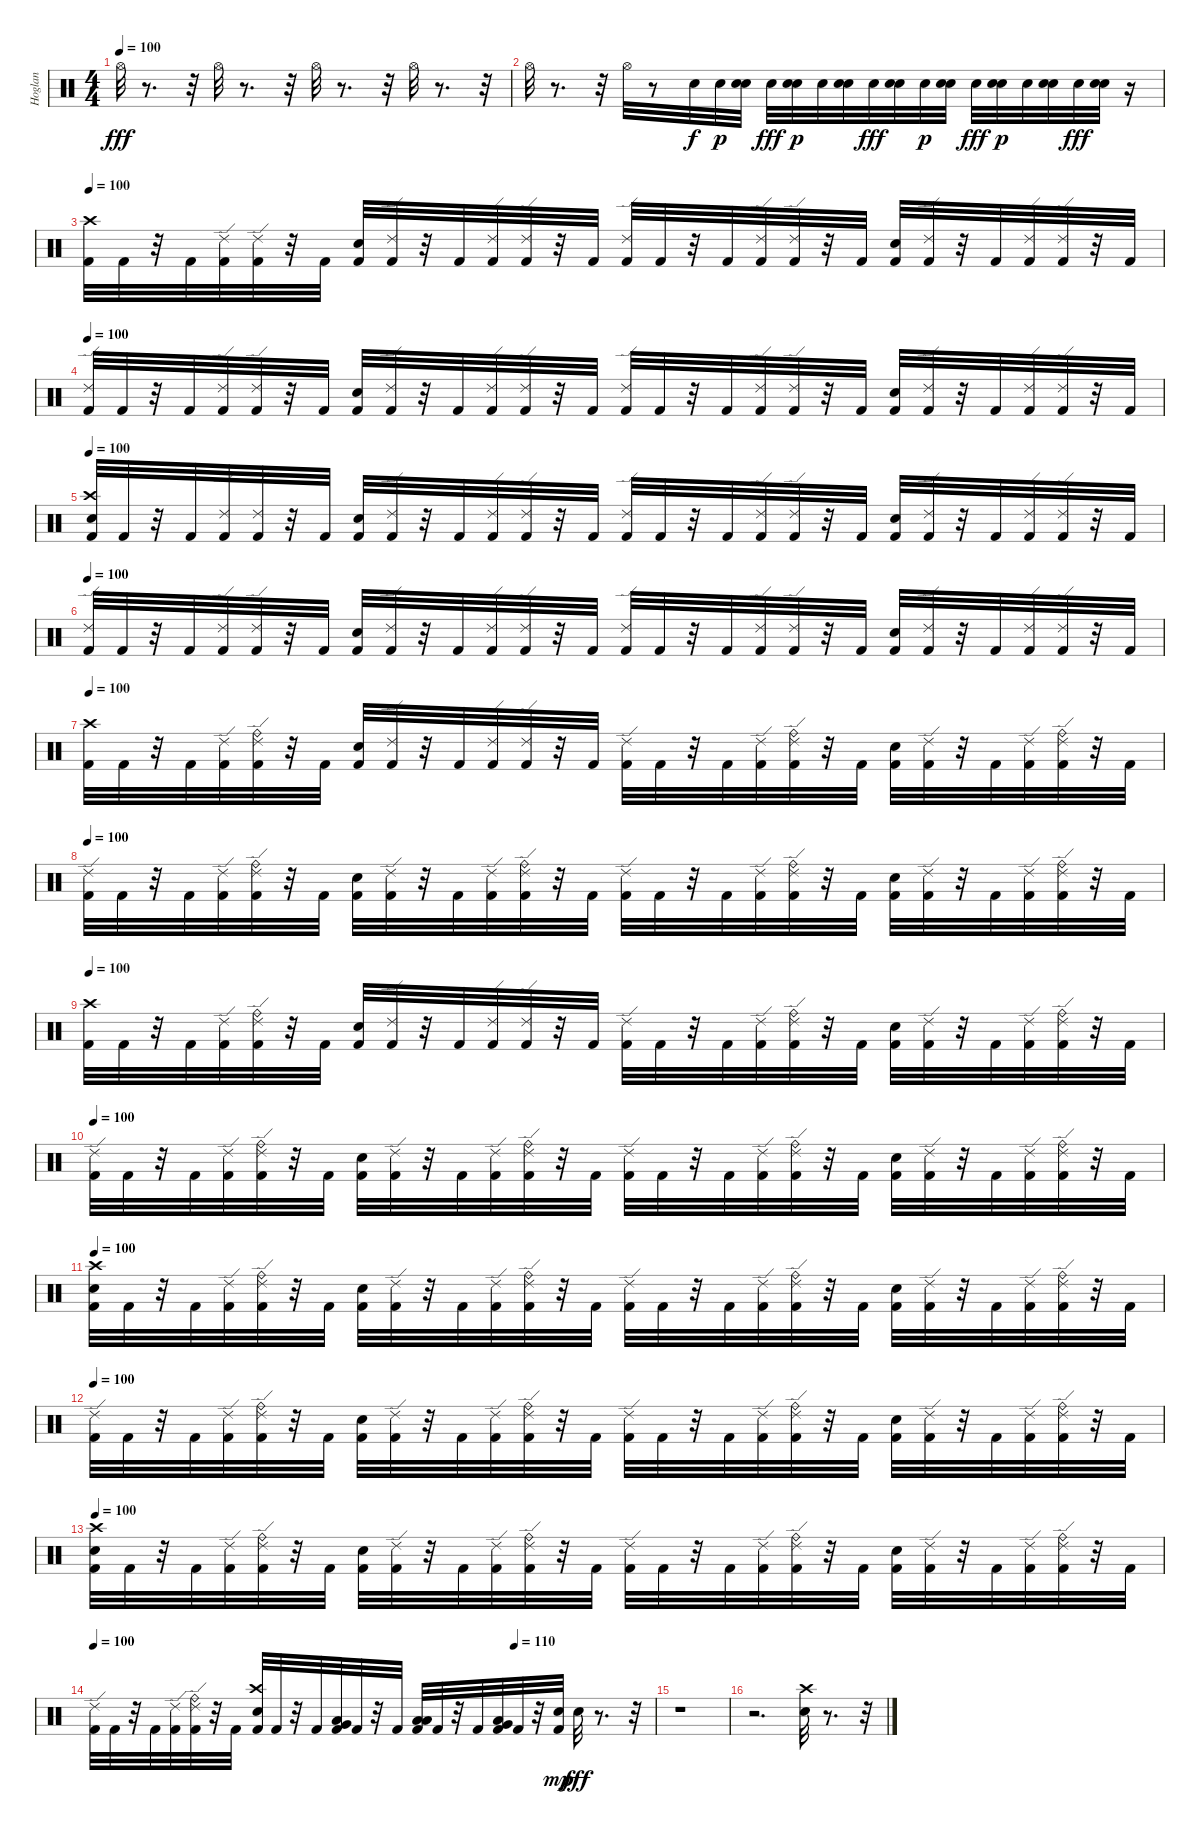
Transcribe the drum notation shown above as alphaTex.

\track ("Hoglan" "Hoglan") {instrument percussion}
\staff {score}
\articulation defaults
\ts (4 4)
\tempo 100
\clef neutral
\ks c "Hi-Hat (open)".32{dy fff}
r.8{d} r.32 "Hi-Hat (open)".32 r.8{d} r.32 "Hi-Hat (open)".32 r.8{d} r.32 "Hi-Hat (open)".32 r.8{d} r.32 |
"Hi-Hat (open)".32 r.8{d} r.32 "Hi-Hat (open)".32 r.8 "Electric Snare (hit)".32{dy f} "Electric Snare (hit)".32{dy p} ("Electric Snare (hit)" "Electric Snare (hit)").32 "Electric Snare (hit)".32{dy fff} ("Electric Snare (hit)" "Electric Snare (hit)").32{dy p} "Electric Snare (hit)".32 ("Electric Snare (hit)" "Electric Snare (hit)").32 "Electric Snare (hit)".32{dy fff} ("Electric Snare (hit)" "Electric Snare (hit)").32 "Electric Snare (hit)".32{dy p} ("Electric Snare (hit)" "Electric Snare (hit)").32 "Electric Snare (hit)".32{dy fff} ("Electric Snare (hit)" "Electric Snare (hit)").32{dy p} "Electric Snare (hit)".32 ("Electric Snare (hit)" "Electric Snare (hit)").32 "Electric Snare (hit)".32{dy fff} ("Electric Snare (hit)" "Electric Snare (hit)").32 r.16 |
\tempo 100
("Crash high (hit)" "Kick (hit) 2").32 "Kick (hit) 2".32 r.32 "Kick (hit) 2".32 ("Ride (edge) 2" "Kick (hit) 2").32 ("Ride (edge) 2" "Kick (hit) 2").32 r.32 "Kick (hit) 2".32 ("Electric Snare (hit)" "Kick (hit) 2").32 ("Ride (edge) 2" "Kick (hit) 2").32 r.32 "Kick (hit) 2".32 ("Ride (edge) 2" "Kick (hit) 2").32 ("Ride (edge) 2" "Kick (hit) 2").32 r.32 "Kick (hit) 2".32 ("Ride (edge) 2" "Kick (hit) 2").32 "Kick (hit) 2".32 r.32 "Kick (hit) 2".32 ("Ride (edge) 2" "Kick (hit) 2").32 ("Ride (edge) 2" "Kick (hit) 2").32 r.32 "Kick (hit) 2".32 ("Electric Snare (hit)" "Kick (hit) 2").32 ("Ride (edge) 2" "Kick (hit) 2").32 r.32 "Kick (hit) 2".32 ("Ride (edge) 2" "Kick (hit) 2").32 ("Ride (edge) 2" "Kick (hit) 2").32 r.32 "Kick (hit) 2".32 |
\tempo 100
("Ride (edge) 2" "Kick (hit) 2").32 "Kick (hit) 2".32 r.32 "Kick (hit) 2".32 ("Ride (edge) 2" "Kick (hit) 2").32 ("Ride (edge) 2" "Kick (hit) 2").32 r.32 "Kick (hit) 2".32 ("Electric Snare (hit)" "Kick (hit) 2").32 ("Ride (edge) 2" "Kick (hit) 2").32 r.32 "Kick (hit) 2".32 ("Ride (edge) 2" "Kick (hit) 2").32 ("Ride (edge) 2" "Kick (hit) 2").32 r.32 "Kick (hit) 2".32 ("Ride (edge) 2" "Kick (hit) 2").32 "Kick (hit) 2".32 r.32 "Kick (hit) 2".32 ("Ride (edge) 2" "Kick (hit) 2").32 ("Ride (edge) 2" "Kick (hit) 2").32 r.32 "Kick (hit) 2".32 ("Electric Snare (hit)" "Kick (hit) 2").32 ("Ride (edge) 2" "Kick (hit) 2").32 r.32 "Kick (hit) 2".32 ("Ride (edge) 2" "Kick (hit) 2").32 ("Ride (edge) 2" "Kick (hit) 2").32 r.32 "Kick (hit) 2".32 |
\tempo 100
("Crash high (hit)" "Electric Snare (hit)" "Kick (hit) 2").32 "Kick (hit) 2".32 r.32 "Kick (hit) 2".32 ("Ride (edge) 2" "Kick (hit) 2").32 ("Ride (edge) 2" "Kick (hit) 2").32 r.32 "Kick (hit) 2".32 ("Electric Snare (hit)" "Kick (hit) 2").32 ("Ride (edge) 2" "Kick (hit) 2").32 r.32 "Kick (hit) 2".32 ("Ride (edge) 2" "Kick (hit) 2").32 ("Ride (edge) 2" "Kick (hit) 2").32 r.32 "Kick (hit) 2".32 ("Ride (edge) 2" "Kick (hit) 2").32 "Kick (hit) 2".32 r.32 "Kick (hit) 2".32 ("Ride (edge) 2" "Kick (hit) 2").32 ("Ride (edge) 2" "Kick (hit) 2").32 r.32 "Kick (hit) 2".32 ("Electric Snare (hit)" "Kick (hit) 2").32 ("Ride (edge) 2" "Kick (hit) 2").32 r.32 "Kick (hit) 2".32 ("Ride (edge) 2" "Kick (hit) 2").32 ("Ride (edge) 2" "Kick (hit) 2").32 r.32 "Kick (hit) 2".32 |
\tempo 100
("Ride (edge) 2" "Kick (hit) 2").32 "Kick (hit) 2".32 r.32 "Kick (hit) 2".32 ("Ride (edge) 2" "Kick (hit) 2").32 ("Ride (edge) 2" "Kick (hit) 2").32 r.32 "Kick (hit) 2".32 ("Electric Snare (hit)" "Kick (hit) 2").32 ("Ride (edge) 2" "Kick (hit) 2").32 r.32 "Kick (hit) 2".32 ("Ride (edge) 2" "Kick (hit) 2").32 ("Ride (edge) 2" "Kick (hit) 2").32 r.32 "Kick (hit) 2".32 ("Ride (edge) 2" "Kick (hit) 2").32 "Kick (hit) 2".32 r.32 "Kick (hit) 2".32 ("Ride (edge) 2" "Kick (hit) 2").32 ("Ride (edge) 2" "Kick (hit) 2").32 r.32 "Kick (hit) 2".32 ("Electric Snare (hit)" "Kick (hit) 2").32 ("Ride (edge) 2" "Kick (hit) 2").32 r.32 "Kick (hit) 2".32 ("Ride (edge) 2" "Kick (hit) 2").32 ("Ride (edge) 2" "Kick (hit) 2").32 r.32 "Kick (hit) 2".32 |
\tempo 100
("Crash high (hit)" "Kick (hit) 2").32 "Kick (hit) 2".32 r.32 "Kick (hit) 2".32 ("Ride (edge) 2" "Kick (hit) 2").32 ("Ride (bell)" "Ride (edge) 2" "Kick (hit) 2").32 r.32 "Kick (hit) 2".32 ("Electric Snare (hit)" "Kick (hit) 2").32 ("Ride (edge) 2" "Kick (hit) 2").32 r.32 "Kick (hit) 2".32 ("Ride (edge) 2" "Kick (hit) 2").32 ("Ride (edge) 2" "Kick (hit) 2").32 r.32 "Kick (hit) 2".32 ("Ride (edge) 2" "Kick (hit) 2").32 "Kick (hit) 2".32 r.32 "Kick (hit) 2".32 ("Ride (edge) 2" "Kick (hit) 2").32 ("Ride (bell)" "Ride (edge) 2" "Kick (hit) 2").32 r.32 "Kick (hit) 2".32 ("Electric Snare (hit)" "Kick (hit) 2").32 ("Ride (edge) 2" "Kick (hit) 2").32 r.32 "Kick (hit) 2".32 ("Ride (edge) 2" "Kick (hit) 2").32 ("Ride (edge) 2" "Ride (bell)" "Kick (hit) 2").32 r.32 "Kick (hit) 2".32 |
\tempo 100
("Ride (edge) 2" "Kick (hit) 2").32 "Kick (hit) 2".32 r.32 "Kick (hit) 2".32 ("Ride (edge) 2" "Kick (hit) 2").32 ("Ride (bell)" "Ride (edge) 2" "Kick (hit) 2").32 r.32 "Kick (hit) 2".32 ("Electric Snare (hit)" "Kick (hit) 2").32 ("Ride (edge) 2" "Kick (hit) 2").32 r.32 "Kick (hit) 2".32 ("Ride (edge) 2" "Kick (hit) 2").32 ("Ride (edge) 2" "Ride (bell)" "Kick (hit) 2").32 r.32 "Kick (hit) 2".32 ("Ride (edge) 2" "Kick (hit) 2").32 "Kick (hit) 2".32 r.32 "Kick (hit) 2".32 ("Ride (edge) 2" "Kick (hit) 2").32 ("Ride (bell)" "Ride (edge) 2" "Kick (hit) 2").32 r.32 "Kick (hit) 2".32 ("Electric Snare (hit)" "Kick (hit) 2").32 ("Ride (edge) 2" "Kick (hit) 2").32 r.32 "Kick (hit) 2".32 ("Ride (edge) 2" "Kick (hit) 2").32 ("Ride (edge) 2" "Ride (bell)" "Kick (hit) 2").32 r.32 "Kick (hit) 2".32 |
\tempo 100
("Crash high (hit)" "Kick (hit) 2").32 "Kick (hit) 2".32 r.32 "Kick (hit) 2".32 ("Ride (edge) 2" "Kick (hit) 2").32 ("Ride (bell)" "Ride (edge) 2" "Kick (hit) 2").32 r.32 "Kick (hit) 2".32 ("Electric Snare (hit)" "Kick (hit) 2").32 ("Ride (edge) 2" "Kick (hit) 2").32 r.32 "Kick (hit) 2".32 ("Ride (edge) 2" "Kick (hit) 2").32 ("Ride (edge) 2" "Kick (hit) 2").32 r.32 "Kick (hit) 2".32 ("Ride (edge) 2" "Kick (hit) 2").32 "Kick (hit) 2".32 r.32 "Kick (hit) 2".32 ("Ride (edge) 2" "Kick (hit) 2").32 ("Ride (bell)" "Ride (edge) 2" "Kick (hit) 2").32 r.32 "Kick (hit) 2".32 ("Electric Snare (hit)" "Kick (hit) 2").32 ("Ride (edge) 2" "Kick (hit) 2").32 r.32 "Kick (hit) 2".32 ("Ride (edge) 2" "Kick (hit) 2").32 ("Ride (edge) 2" "Ride (bell)" "Kick (hit) 2").32 r.32 "Kick (hit) 2".32 |
\tempo 100
("Ride (edge) 2" "Kick (hit) 2").32 "Kick (hit) 2".32 r.32 "Kick (hit) 2".32 ("Ride (edge) 2" "Kick (hit) 2").32 ("Ride (bell)" "Ride (edge) 2" "Kick (hit) 2").32 r.32 "Kick (hit) 2".32 ("Electric Snare (hit)" "Kick (hit) 2").32 ("Ride (edge) 2" "Kick (hit) 2").32 r.32 "Kick (hit) 2".32 ("Ride (edge) 2" "Kick (hit) 2").32 ("Ride (edge) 2" "Ride (bell)" "Kick (hit) 2").32 r.32 "Kick (hit) 2".32 ("Ride (edge) 2" "Kick (hit) 2").32 "Kick (hit) 2".32 r.32 "Kick (hit) 2".32 ("Ride (edge) 2" "Kick (hit) 2").32 ("Ride (bell)" "Ride (edge) 2" "Kick (hit) 2").32 r.32 "Kick (hit) 2".32 ("Electric Snare (hit)" "Kick (hit) 2").32 ("Ride (edge) 2" "Kick (hit) 2").32 r.32 "Kick (hit) 2".32 ("Ride (edge) 2" "Kick (hit) 2").32 ("Ride (edge) 2" "Ride (bell)" "Kick (hit) 2").32 r.32 "Kick (hit) 2".32 |
\tempo 100
("Crash high (hit)" "Electric Snare (hit)" "Kick (hit) 2").32 "Kick (hit) 2".32 r.32 "Kick (hit) 2".32 ("Ride (edge) 2" "Kick (hit) 2").32 ("Ride (bell)" "Ride (edge) 2" "Kick (hit) 2").32 r.32 "Kick (hit) 2".32 ("Electric Snare (hit)" "Kick (hit) 2").32 ("Ride (edge) 2" "Kick (hit) 2").32 r.32 "Kick (hit) 2".32 ("Ride (edge) 2" "Kick (hit) 2").32 ("Ride (edge) 2" "Ride (bell)" "Kick (hit) 2").32 r.32 "Kick (hit) 2".32 ("Ride (edge) 2" "Kick (hit) 2").32 "Kick (hit) 2".32 r.32 "Kick (hit) 2".32 ("Ride (edge) 2" "Kick (hit) 2").32 ("Ride (bell)" "Ride (edge) 2" "Kick (hit) 2").32 r.32 "Kick (hit) 2".32 ("Electric Snare (hit)" "Kick (hit) 2").32 ("Ride (edge) 2" "Kick (hit) 2").32 r.32 "Kick (hit) 2".32 ("Ride (edge) 2" "Kick (hit) 2").32 ("Ride (edge) 2" "Ride (bell)" "Kick (hit) 2").32 r.32 "Kick (hit) 2".32 |
\tempo 100
("Ride (edge) 2" "Kick (hit) 2").32 "Kick (hit) 2".32 r.32 "Kick (hit) 2".32 ("Ride (edge) 2" "Kick (hit) 2").32 ("Ride (bell)" "Ride (edge) 2" "Kick (hit) 2").32 r.32 "Kick (hit) 2".32 ("Electric Snare (hit)" "Kick (hit) 2").32 ("Ride (edge) 2" "Kick (hit) 2").32 r.32 "Kick (hit) 2".32 ("Ride (edge) 2" "Kick (hit) 2").32 ("Ride (edge) 2" "Ride (bell)" "Kick (hit) 2").32 r.32 "Kick (hit) 2".32 ("Ride (edge) 2" "Kick (hit) 2").32 "Kick (hit) 2".32 r.32 "Kick (hit) 2".32 ("Ride (edge) 2" "Kick (hit) 2").32 ("Ride (bell)" "Ride (edge) 2" "Kick (hit) 2").32 r.32 "Kick (hit) 2".32 ("Electric Snare (hit)" "Kick (hit) 2").32 ("Ride (edge) 2" "Kick (hit) 2").32 r.32 "Kick (hit) 2".32 ("Ride (edge) 2" "Kick (hit) 2").32 ("Ride (edge) 2" "Ride (bell)" "Kick (hit) 2").32 r.32 "Kick (hit) 2".32 |
\tempo 100
("Crash high (hit)" "Electric Snare (hit)" "Kick (hit) 2").32 "Kick (hit) 2".32 r.32 "Kick (hit) 2".32 ("Ride (edge) 2" "Kick (hit) 2").32 ("Ride (bell)" "Ride (edge) 2" "Kick (hit) 2").32 r.32 "Kick (hit) 2".32 ("Electric Snare (hit)" "Kick (hit) 2").32 ("Ride (edge) 2" "Kick (hit) 2").32 r.32 "Kick (hit) 2".32 ("Ride (edge) 2" "Kick (hit) 2").32 ("Ride (edge) 2" "Ride (bell)" "Kick (hit) 2").32 r.32 "Kick (hit) 2".32 ("Ride (edge) 2" "Kick (hit) 2").32 "Kick (hit) 2".32 r.32 "Kick (hit) 2".32 ("Ride (edge) 2" "Kick (hit) 2").32 ("Ride (bell)" "Ride (edge) 2" "Kick (hit) 2").32 r.32 "Kick (hit) 2".32 ("Electric Snare (hit)" "Kick (hit) 2").32 ("Ride (edge) 2" "Kick (hit) 2").32 r.32 "Kick (hit) 2".32 ("Ride (edge) 2" "Kick (hit) 2").32 ("Ride (edge) 2" "Ride (bell)" "Kick (hit) 2").32 r.32 "Kick (hit) 2".32 |
\tempo 100
\tempo (110 0.75)
("Ride (edge) 2" "Kick (hit) 2").32 "Kick (hit) 2".32 r.32 "Kick (hit) 2".32 ("Ride (edge) 2" "Kick (hit) 2").32 ("Ride (bell)" "Ride (edge) 2" "Kick (hit) 2").32 r.32 "Kick (hit) 2".32 ("Crash high (hit)" "Electric Snare (hit)" "Kick (hit) 2").32 "Kick (hit) 2".32 r.32 "Kick (hit) 2".32 ("Low Tom (hit)" "Very Low Tom (hit)" "Kick (hit) 2").32 "Kick (hit) 2".32 r.32 "Kick (hit) 2".32 ("Low Tom (hit)" "Low Floor Tom (hit)" "Kick (hit) 2").32 "Kick (hit) 2".32 r.32 "Kick (hit) 2".32 ("Very Low Tom (hit)" "Low Floor Tom (hit)" "Kick (hit) 2").32 "Kick (hit) 2".32 r.32 ("Kick (hit) 2" "Electric Snare (hit)").32{dy mp} "Electric Snare (hit)".32{dy fff} r.8{d} r.32 |
r.1 |
r.2{d} ("Crash high (hit)" "Electric Snare (hit)").32 r.8{d} r.32
